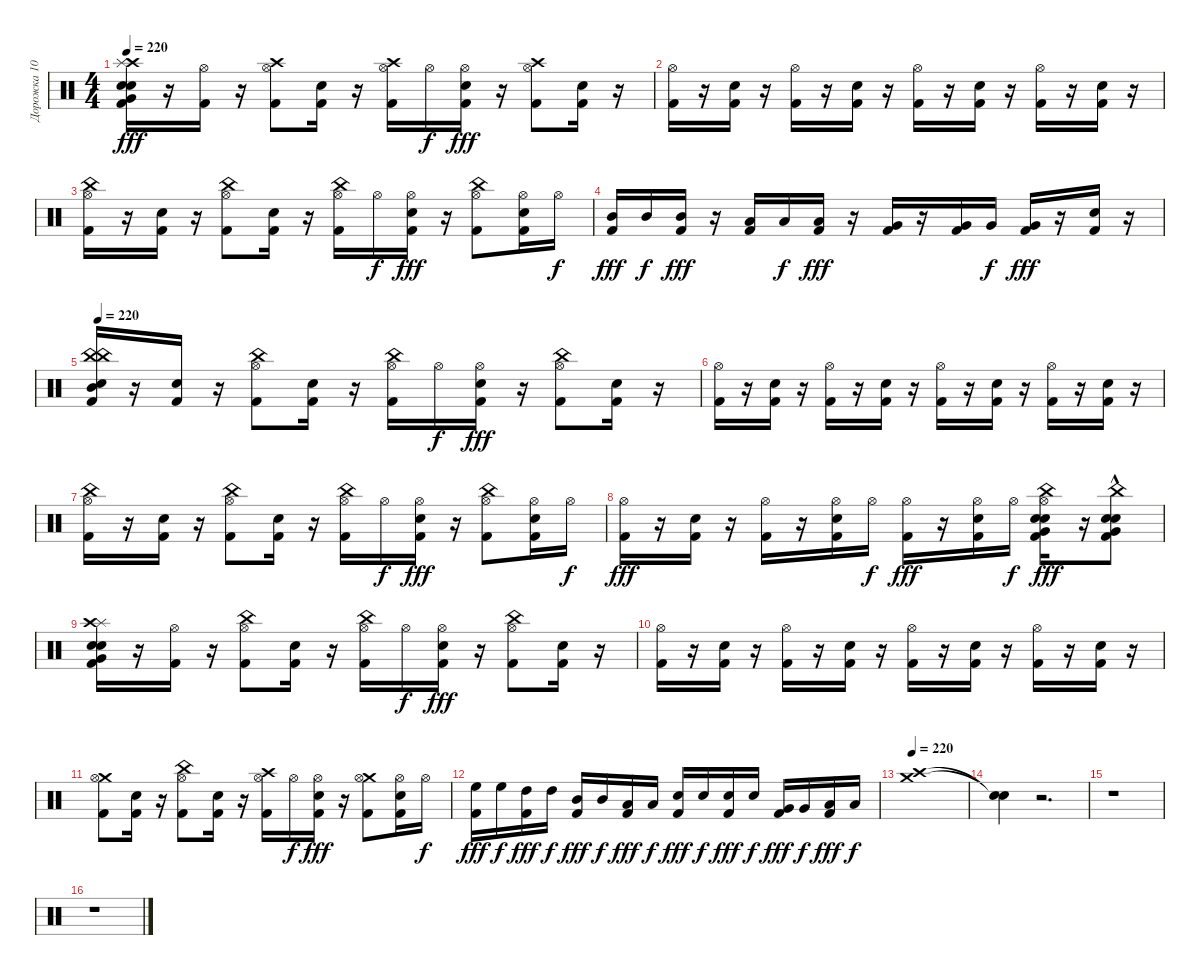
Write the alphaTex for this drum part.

\track ("Дорожка 10" "Дорожка 10") {instrument percussion}
\staff {score}
\articulation defaults
\ts (4 4)
\tempo 220
\clef neutral
\ks c
("Kick (hit) 2" "Very Low Tom (hit)" "Snare (hit) 2" "Crash high (hit)" "Electric Snare (hit)" "Splash (hit)").16{dy fff} r.16 ("Hi-Hat (open)" "Kick (hit) 2").16 r.16 ("Hi-Hat (open)" "Kick (hit) 2" "Crash high (hit)").8 ("Kick (hit) 2" "Snare (hit) 2").16 r.16 ("Kick (hit) 2" "Hi-Hat (open)" "Crash high (hit)").16 "Hi-Hat (open)".16{dy f} ("Snare (hit) 2" "Kick (hit) 2" "Hi-Hat (open)").16{dy fff} r.16 ("Kick (hit) 2" "Hi-Hat (open)" "Crash high (hit)").8 ("Snare (hit) 2" "Kick (hit) 2").16 r.16 |
("Hi-Hat (open)" "Kick (hit) 2").16 r.16 ("Kick (hit) 2" "Snare (hit) 2").16 r.16 ("Hi-Hat (open)" "Kick (hit) 2").16 r.16 ("Snare (hit) 2" "Kick (hit) 2").16 r.16 ("Kick (hit) 2" "Hi-Hat (open)").16 r.16 ("Snare (hit) 2" "Kick (hit) 2").16 r.16 ("Hi-Hat (open)" "Kick (hit) 2").16 r.16 ("Snare (hit) 2" "Kick (hit) 2").16 r.16 |
("Hi-Hat (open)" "Kick (hit) 2" "China (hit)").16 r.16 ("Kick (hit) 2" "Snare (hit) 2").16 r.16 ("Kick (hit) 2" "China (hit)" "Hi-Hat (open)").8 ("Snare (hit) 2" "Kick (hit) 2").16 r.16 ("China (hit)" "Hi-Hat (open)" "Kick (hit) 2").16 "Hi-Hat (open)".16{dy f} ("Snare (hit) 2" "Kick (hit) 2" "Hi-Hat (open)").16{dy fff} r.16 ("Hi-Hat (open)" "China (hit)" "Kick (hit) 2").8 ("Snare (hit) 2" "Kick (hit) 2" "Hi-Hat (open)").16 "Hi-Hat (open)".16{dy f} |
("Kick (hit) 2" "Mid Tom (hit)").16{dy fff} "Mid Tom (hit)".16{dy f} ("Mid Tom (hit)" "Kick (hit) 2").16{dy fff} r.16 ("Low Tom (hit)" "Kick (hit) 2").16 "Low Tom (hit)".16{dy f} ("Low Tom (hit)" "Kick (hit) 2").16{dy fff} r.16 ("Very Low Tom (hit)" "Kick (hit) 2").16 r.16 ("Kick (hit) 2" "Very Low Tom (hit)").16 "Very Low Tom (hit)".16{dy f} ("Kick (hit) 2" "Very Low Tom (hit)").16{dy fff} r.16 ("Kick (hit) 2" "Electric Snare (hit)").16 r.16 |
\tempo 220
("Kick (hit) 2" "China (hit)" "Mid Tom (hit)" "Snare (hit) 2" "China (hit)").16 r.16 ("Kick (hit) 2" "Electric Snare (hit)").16 r.16 ("Kick (hit) 2" "Hi-Hat (open)" "China (hit)").8 ("Snare (hit) 2" "Kick (hit) 2").16 r.16 ("China (hit)" "Hi-Hat (open)" "Kick (hit) 2").16 "Hi-Hat (open)".16{dy f} ("Kick (hit) 2" "Hi-Hat (open)" "Snare (hit) 2").16{dy fff} r.16 ("China (hit)" "Kick (hit) 2" "Hi-Hat (open)").8 ("Kick (hit) 2" "Snare (hit) 2").16 r.16 |
("Hi-Hat (open)" "Kick (hit) 2").16 r.16 ("Snare (hit) 2" "Kick (hit) 2").16 r.16 ("Hi-Hat (open)" "Kick (hit) 2").16 r.16 ("Snare (hit) 2" "Kick (hit) 2").16 r.16 ("Kick (hit) 2" "Hi-Hat (open)").16 r.16 ("Snare (hit) 2" "Kick (hit) 2").16 r.16 ("Hi-Hat (open)" "Kick (hit) 2").16 r.16 ("Kick (hit) 2" "Snare (hit) 2").16 r.16 |
("Hi-Hat (open)" "Kick (hit) 2" "China (hit)").16 r.16 ("Kick (hit) 2" "Snare (hit) 2").16 r.16 ("Kick (hit) 2" "China (hit)" "Hi-Hat (open)").8 ("Snare (hit) 2" "Kick (hit) 2").16 r.16 ("Hi-Hat (open)" "Kick (hit) 2" "China (hit)").16 "Hi-Hat (open)".16{dy f} ("Kick (hit) 2" "Hi-Hat (open)" "Snare (hit) 2").16{dy fff} r.16 ("Hi-Hat (open)" "China (hit)" "Kick (hit) 2").8 ("Snare (hit) 2" "Kick (hit) 2" "Hi-Hat (open)").16 "Hi-Hat (open)".16{dy f} |
("Kick (hit) 2" "Hi-Hat (open)").16{dy fff} r.16 ("Snare (hit) 2" "Kick (hit) 2").16 r.16 ("Hi-Hat (open)" "Kick (hit) 2").16 r.16 ("Hi-Hat (open)" "Kick (hit) 2" "Snare (hit) 2").16 "Hi-Hat (open)".16{dy f} ("Hi-Hat (open)" "Kick (hit) 2").16{dy fff} r.16 ("Kick (hit) 2" "Snare (hit) 2" "Hi-Hat (open)").16 "Hi-Hat (open)".16{dy f} ("Hi-Hat (open)" "Very Low Tom (hit)" "China (hit)" "Snare (hit) 2" "Kick (hit) 2" "Electric Snare (hit)").16{dy fff} r.16 ("Snare (hit) 2" "Electric Snare (hit)" "China (hit)"{hac} "Kick (hit) 2" "Very Low Tom (hit)").8 |
("Splash (hit)" "Crash high (hit)" "Kick (hit) 2" "Snare (hit) 2" "Electric Snare (hit)" "Very Low Tom (hit)").16 r.16 ("Kick (hit) 2" "Hi-Hat (open)").16 r.16 ("Kick (hit) 2" "China (hit)" "Hi-Hat (open)").8 ("Kick (hit) 2" "Snare (hit) 2").16 r.16 ("China (hit)" "Hi-Hat (open)" "Kick (hit) 2").16 "Hi-Hat (open)".16{dy f} ("Hi-Hat (open)" "Snare (hit) 2" "Kick (hit) 2").16{dy fff} r.16 ("Kick (hit) 2" "China (hit)" "Hi-Hat (open)").8 ("Kick (hit) 2" "Snare (hit) 2").16 r.16 |
("Hi-Hat (open)" "Kick (hit) 2").16 r.16 ("Snare (hit) 2" "Kick (hit) 2").16 r.16 ("Kick (hit) 2" "Hi-Hat (open)").16 r.16 ("Kick (hit) 2" "Snare (hit) 2").16 r.16 ("Hi-Hat (open)" "Kick (hit) 2").16 r.16 ("Snare (hit) 2" "Kick (hit) 2").16 r.16 ("Hi-Hat (open)" "Kick (hit) 2").16 r.16 ("Kick (hit) 2" "Snare (hit) 2").16 r.16 |
("Crash medium (hit)" "Kick (hit) 2" "Hi-Hat (open)").8 ("Kick (hit) 2" "Snare (hit) 2").16 r.16 ("China (hit)" "Kick (hit) 2" "Hi-Hat (open)").8 ("Kick (hit) 2" "Snare (hit) 2").16 r.16 ("Crash high (hit)" "Hi-Hat (open)" "Kick (hit) 2").16 "Hi-Hat (open)".16{dy f} ("Kick (hit) 2" "Snare (hit) 2" "Hi-Hat (open)").16{dy fff} r.16 ("Crash medium (hit)" "Kick (hit) 2" "Hi-Hat (open)").8 ("Hi-Hat (open)" "Snare (hit) 2" "Kick (hit) 2").16 "Hi-Hat (open)".16{dy f} |
("Kick (hit) 2" "High Floor Tom (hit)").16{dy fff} "High Floor Tom (hit)".16{dy f} ("Kick (hit) 2" "High Tom (hit)").16{dy fff} "High Tom (hit)".16{dy f} ("Mid Tom (hit)" "Kick (hit) 2").16{dy fff} "Mid Tom (hit)".16{dy f} ("Low Tom (hit)" "Kick (hit) 2").16{dy fff} "Low Tom (hit)".16{dy f} ("Electric Snare (hit)" "Kick (hit) 2").16{dy fff} "Electric Snare (hit)".16{dy f} ("Kick (hit) 2" "Electric Snare (hit)").16{dy fff} "Electric Snare (hit)".16{dy f} ("Very Low Tom (hit)" "Kick (hit) 2").16{dy fff} "Very Low Tom (hit)".16{dy f} ("Kick (hit) 2" "Low Floor Tom (hit)").16{dy fff} "Low Floor Tom (hit)".16{dy f} |
\tempo 220
("Crash high (hit)" "Crash medium (hit)").1 |
("Snare (hit)"{t} "Snare (hit)"{t}).4 r.2{d} |
r.1 |
r.1
